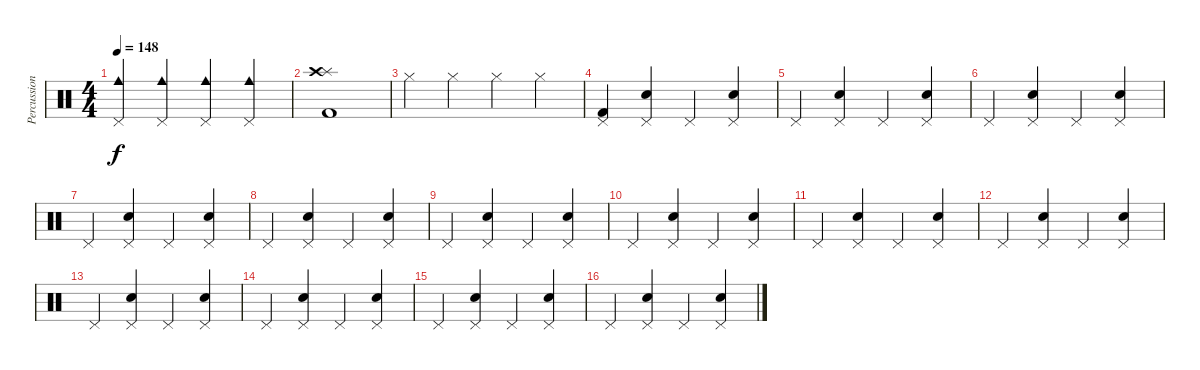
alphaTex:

\track ("Percussions" "Percussion") {instrument percussion}
\staff {score}
\articulation defaults
\ts (4 4)
\tempo 148
\clef neutral
\ks c
("Cowbell medium (hit)" "Pedal Hi-Hat (hit)").4{dy f} ("Cowbell medium (hit)" "Pedal Hi-Hat (hit)").4 ("Cowbell medium (hit)" "Pedal Hi-Hat (hit)").4 ("Cowbell medium (hit)" "Pedal Hi-Hat (hit)").4 |
("Kick (hit) 2" "Splash (hit)" "Crash high (hit)").1 |
"Hi-Hat (closed)".4 "Hi-Hat (closed)".4 "Hi-Hat (closed)".4 "Hi-Hat (closed)".4 |
("Pedal Hi-Hat (hit)" "Kick (hit) 2").4 ("Electric Snare (hit)" "Pedal Hi-Hat (hit)").4 "Pedal Hi-Hat (hit)".4 ("Electric Snare (hit)" "Pedal Hi-Hat (hit)").4 |
"Pedal Hi-Hat (hit)".4 ("Electric Snare (hit)" "Pedal Hi-Hat (hit)").4 "Pedal Hi-Hat (hit)".4 ("Electric Snare (hit)" "Pedal Hi-Hat (hit)").4 |
"Pedal Hi-Hat (hit)".4 ("Electric Snare (hit)" "Pedal Hi-Hat (hit)").4 "Pedal Hi-Hat (hit)".4 ("Electric Snare (hit)" "Pedal Hi-Hat (hit)").4 |
"Pedal Hi-Hat (hit)".4 ("Electric Snare (hit)" "Pedal Hi-Hat (hit)").4 "Pedal Hi-Hat (hit)".4 ("Electric Snare (hit)" "Pedal Hi-Hat (hit)").4 |
"Pedal Hi-Hat (hit)".4 ("Electric Snare (hit)" "Pedal Hi-Hat (hit)").4 "Pedal Hi-Hat (hit)".4 ("Electric Snare (hit)" "Pedal Hi-Hat (hit)").4 |
"Pedal Hi-Hat (hit)".4 ("Electric Snare (hit)" "Pedal Hi-Hat (hit)").4 "Pedal Hi-Hat (hit)".4 ("Electric Snare (hit)" "Pedal Hi-Hat (hit)").4 |
"Pedal Hi-Hat (hit)".4 ("Electric Snare (hit)" "Pedal Hi-Hat (hit)").4 "Pedal Hi-Hat (hit)".4 ("Electric Snare (hit)" "Pedal Hi-Hat (hit)").4 |
"Pedal Hi-Hat (hit)".4 ("Electric Snare (hit)" "Pedal Hi-Hat (hit)").4 "Pedal Hi-Hat (hit)".4 ("Electric Snare (hit)" "Pedal Hi-Hat (hit)").4 |
"Pedal Hi-Hat (hit)".4 ("Electric Snare (hit)" "Pedal Hi-Hat (hit)").4 "Pedal Hi-Hat (hit)".4 ("Electric Snare (hit)" "Pedal Hi-Hat (hit)").4 |
"Pedal Hi-Hat (hit)".4 ("Electric Snare (hit)" "Pedal Hi-Hat (hit)").4 "Pedal Hi-Hat (hit)".4 ("Electric Snare (hit)" "Pedal Hi-Hat (hit)").4 |
"Pedal Hi-Hat (hit)".4 ("Electric Snare (hit)" "Pedal Hi-Hat (hit)").4 "Pedal Hi-Hat (hit)".4 ("Electric Snare (hit)" "Pedal Hi-Hat (hit)").4 |
"Pedal Hi-Hat (hit)".4 ("Electric Snare (hit)" "Pedal Hi-Hat (hit)").4 "Pedal Hi-Hat (hit)".4 ("Electric Snare (hit)" "Pedal Hi-Hat (hit)").4 |
"Pedal Hi-Hat (hit)".4 ("Electric Snare (hit)" "Pedal Hi-Hat (hit)").4 "Pedal Hi-Hat (hit)".4 ("Electric Snare (hit)" "Pedal Hi-Hat (hit)").4
